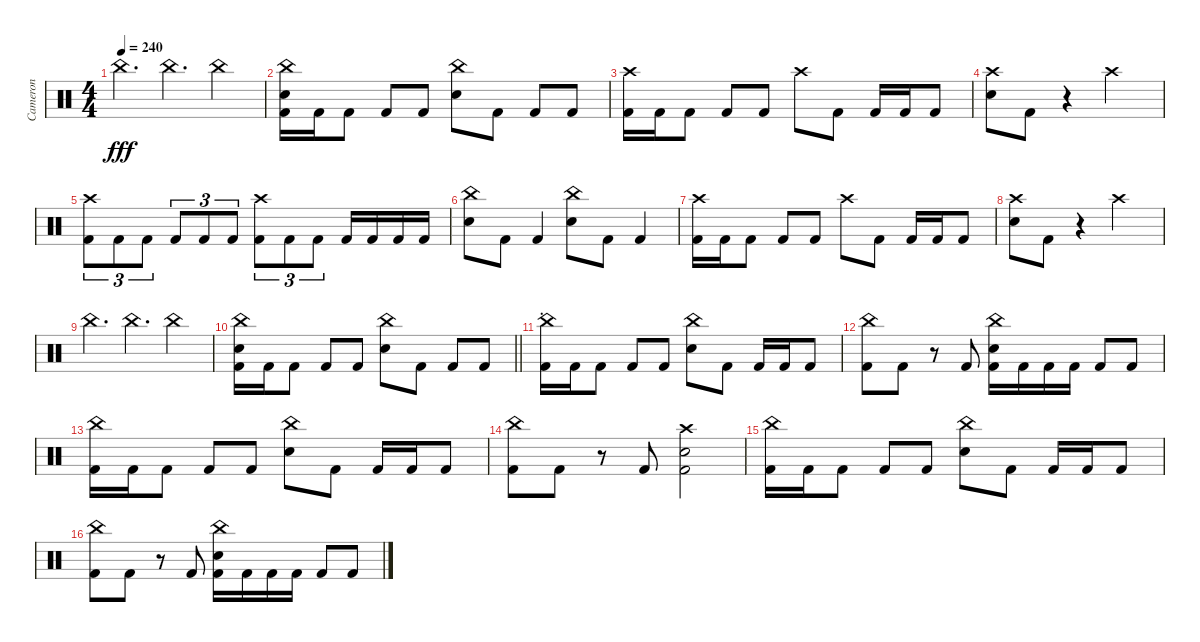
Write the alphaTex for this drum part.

\track ("Cameron" "Cameron") {instrument percussion}
\staff {score}
\articulation defaults
\ts (4 4)
\tempo 240
\clef neutral
\ks c "China (hit)".4{d dy fff} "China (hit)".4{d} "China (hit)".4
|
("China (hit)" "Electric Snare (hit)" "Kick (hit) 2").16 "Kick (hit) 2".16 "Kick (hit) 2".8 "Kick (hit) 2".8 "Kick (hit) 2".8 ("China (hit)" "Electric Snare (hit)").8 "Kick (hit) 2".8 "Kick (hit) 2".8 "Kick (hit) 2".8 |
("Crash high (hit)" "Kick (hit) 2").16 "Kick (hit) 2".16 "Kick (hit) 2".8 "Kick (hit) 2".8 "Kick (hit) 2".8 "Crash high (hit)".8 "Kick (hit) 2".8 "Kick (hit) 2".16 "Kick (hit) 2".16 "Kick (hit) 2".8 |
("Crash high (hit)" "Electric Snare (hit)").8 "Kick (hit) 2".8 r.4 "Crash high (hit)".2 |
("Crash high (hit)" "Kick (hit) 2").8{tu (3 2)} "Kick (hit) 2".8{tu (3 2)} "Kick (hit) 2".8{tu (3 2)} "Kick (hit) 2".8{tu (3 2)} "Kick (hit) 2".8{tu (3 2)} "Kick (hit) 2".8{tu (3 2)} ("Crash high (hit)" "Kick (hit) 2").8{tu (3 2)} "Kick (hit) 2".8{tu (3 2)} "Kick (hit) 2".8{tu (3 2)} "Kick (hit) 2".16 "Kick (hit) 2".16 "Kick (hit) 2".16 "Kick (hit) 2".16 |
("China (hit)" "Electric Snare (hit)").8 "Kick (hit) 2".8 "Kick (hit) 2".4 ("China (hit)" "Electric Snare (hit)").8 "Kick (hit) 2".8 "Kick (hit) 2".4 |
("Crash high (hit)" "Kick (hit) 2").16 "Kick (hit) 2".16 "Kick (hit) 2".8 "Kick (hit) 2".8 "Kick (hit) 2".8 "Crash high (hit)".8 "Kick (hit) 2".8 "Kick (hit) 2".16 "Kick (hit) 2".16 "Kick (hit) 2".8 |
("Crash high (hit)" "Electric Snare (hit)").8 "Kick (hit) 2".8 r.4 "Crash high (hit)".2 |
"China (hit)".4{d} "China (hit)".4{d} "China (hit)".4 |
\barLineRight lightlight
("China (hit)" "Electric Snare (hit)" "Kick (hit) 2").16 "Kick (hit) 2".16 "Kick (hit) 2".8 "Kick (hit) 2".8 "Kick (hit) 2".8 ("China (hit)" "Electric Snare (hit)").8 "Kick (hit) 2".8 "Kick (hit) 2".8 "Kick (hit) 2".8 |
\section ("" ".")
("China (hit)" "Kick (hit) 2").16 "Kick (hit) 2".16 "Kick (hit) 2".8 "Kick (hit) 2".8 "Kick (hit) 2".8 ("China (hit)" "Electric Snare (hit)").8 "Kick (hit) 2".8 "Kick (hit) 2".16 "Kick (hit) 2".16 "Kick (hit) 2".8 |
("China (hit)" "Kick (hit) 2").8 "Kick (hit) 2".8 r.8 "Kick (hit) 2".8 ("China (hit)" "Electric Snare (hit)" "Kick (hit) 2").16 "Kick (hit) 2".16 "Kick (hit) 2".16 "Kick (hit) 2".16 "Kick (hit) 2".8 "Kick (hit) 2".8 |
("China (hit)" "Kick (hit) 2").16 "Kick (hit) 2".16 "Kick (hit) 2".8 "Kick (hit) 2".8 "Kick (hit) 2".8 ("China (hit)" "Electric Snare (hit)").8 "Kick (hit) 2".8 "Kick (hit) 2".16 "Kick (hit) 2".16 "Kick (hit) 2".8 |
("China (hit)" "Kick (hit) 2").8 "Kick (hit) 2".8 r.8 "Kick (hit) 2".8 ("Crash high (hit)" "Electric Snare (hit)" "Kick (hit) 2").2 |
("China (hit)" "Kick (hit) 2").16 "Kick (hit) 2".16 "Kick (hit) 2".8 "Kick (hit) 2".8 "Kick (hit) 2".8 ("China (hit)" "Electric Snare (hit)").8 "Kick (hit) 2".8 "Kick (hit) 2".16 "Kick (hit) 2".16 "Kick (hit) 2".8 |
("China (hit)" "Kick (hit) 2").8 "Kick (hit) 2".8 r.8 "Kick (hit) 2".8 ("China (hit)" "Electric Snare (hit)" "Kick (hit) 2").16 "Kick (hit) 2".16 "Kick (hit) 2".16 "Kick (hit) 2".16 "Kick (hit) 2".8 "Kick (hit) 2".8
